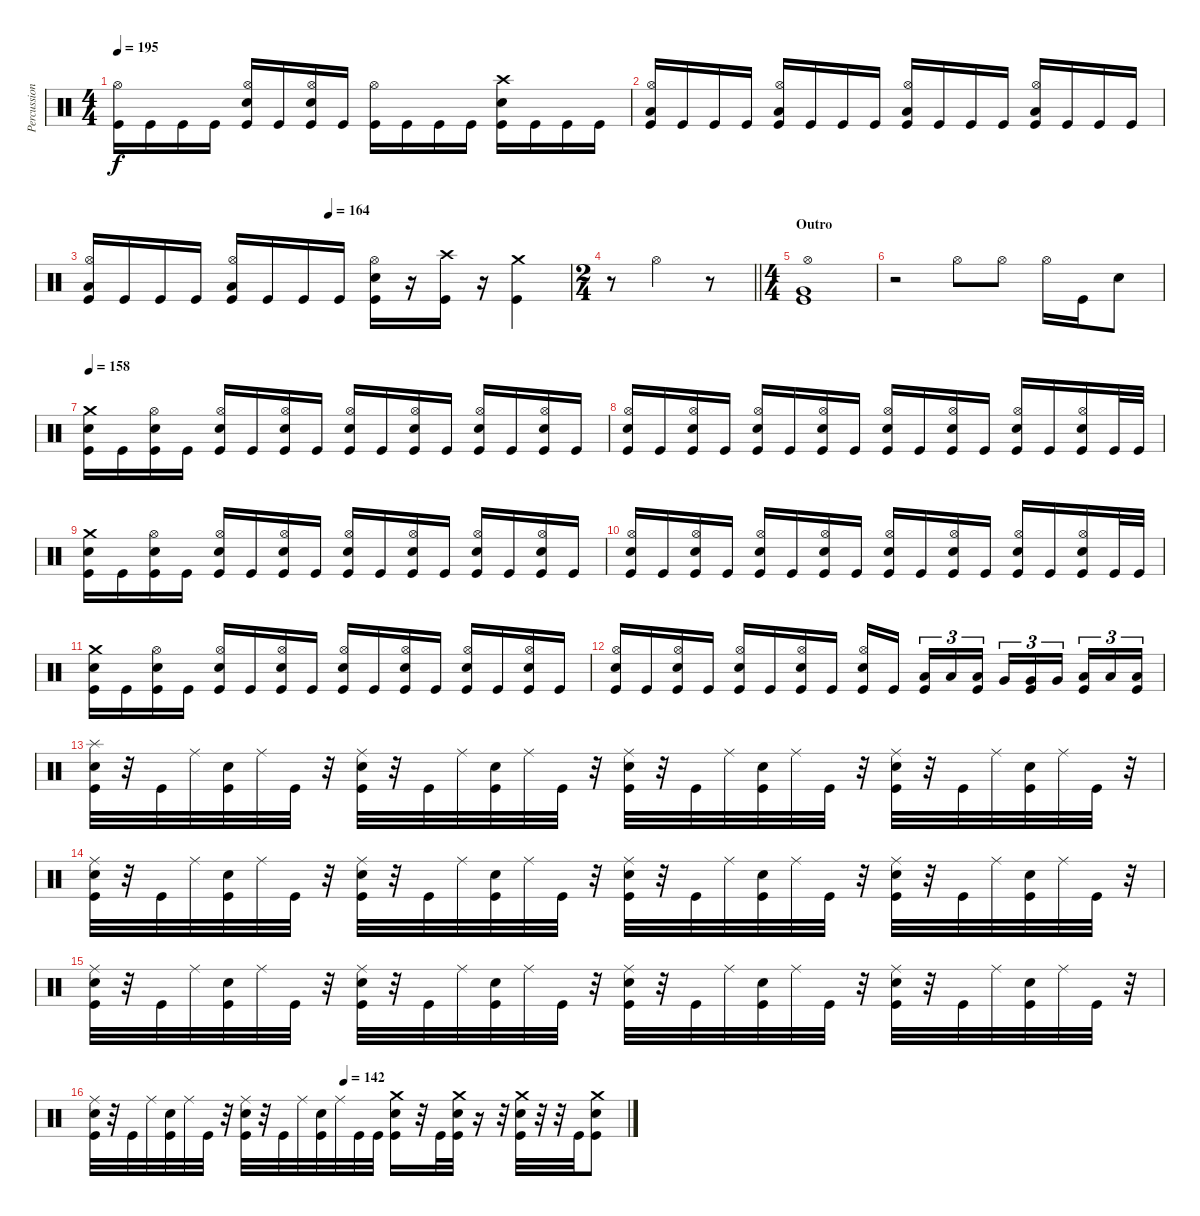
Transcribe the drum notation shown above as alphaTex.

\track ("Percussion" "Percussion") {instrument percussion}
\staff {score}
\articulation defaults
\ts (4 4)
\tempo 195
\clef neutral
\ks c
("Kick (hit)" "Hi-Hat (open)").16{dy f} "Kick (hit)".16 "Kick (hit)".16 "Kick (hit)".16 ("Kick (hit)" "Hi-Hat (open)" "Snare (hit) 2").16 "Kick (hit)".16 ("Kick (hit)" "Hi-Hat (open)" "Snare (hit) 2").16 "Kick (hit)".16 ("Kick (hit)" "Hi-Hat (open)").16 "Kick (hit)".16 "Kick (hit)".16 "Kick (hit)".16 ("Kick (hit)" "Crash high (hit)" "Snare (hit) 2").16 "Kick (hit)".16 "Kick (hit)".16 "Kick (hit)".16 |
("Kick (hit)" "Hi-Hat (open)" "Low Tom (hit)").16 "Kick (hit)".16 "Kick (hit)".16 "Kick (hit)".16 ("Kick (hit)" "Hi-Hat (open)" "Low Tom (hit)").16 "Kick (hit)".16 "Kick (hit)".16 "Kick (hit)".16 ("Kick (hit)" "Hi-Hat (open)" "Low Tom (hit)").16 "Kick (hit)".16 "Kick (hit)".16 "Kick (hit)".16 ("Kick (hit)" "Hi-Hat (open)" "Low Tom (hit)").16 "Kick (hit)".16 "Kick (hit)".16 "Kick (hit)".16 |
\tempo (164 0.5)
("Kick (hit)" "Hi-Hat (open)" "Low Tom (hit)").16 "Kick (hit)".16 "Kick (hit)".16 "Kick (hit)".16 ("Kick (hit)" "Hi-Hat (open)" "Low Tom (hit)").16 "Kick (hit)".16 "Kick (hit)".16 "Kick (hit)".16 ("Kick (hit)" "Hi-Hat (open)" "Snare (hit) 2").16 r.16 ("Kick (hit)" "Crash high (hit)").16 r.16 ("Kick (hit)" "Crash medium (hit)").4 |
\ts (2 4)
\barLineRight lightlight
r.8 "Hi-Hat (open)".4 r.8 |
\ts (4 4)
\section ("" "Outro")
("Kick (hit)" "Hi-Hat (open)" "Very Low Tom (hit)").1 |
r.2 "Hi-Hat (open)".8 "Hi-Hat (open)".8 "Hi-Hat (open)".16 "Kick (hit)".16 "Snare (hit) 2".8 |
\tempo 158
("Kick (hit)" "Snare (hit) 2" "Crash medium (hit)").16 "Kick (hit)".16 ("Kick (hit)" "Snare (hit) 2" "Hi-Hat (open)").16 "Kick (hit)".16 ("Kick (hit)" "Snare (hit) 2" "Hi-Hat (open)").16 "Kick (hit)".16 ("Kick (hit)" "Snare (hit) 2" "Hi-Hat (open)").16 "Kick (hit)".16 ("Kick (hit)" "Snare (hit) 2" "Hi-Hat (open)").16 "Kick (hit)".16 ("Kick (hit)" "Snare (hit) 2" "Hi-Hat (open)").16 "Kick (hit)".16 ("Kick (hit)" "Snare (hit) 2" "Hi-Hat (open)").16 "Kick (hit)".16 ("Kick (hit)" "Snare (hit) 2" "Hi-Hat (open)").16 "Kick (hit)".16 |
("Kick (hit)" "Snare (hit) 2" "Hi-Hat (open)").16 "Kick (hit)".16 ("Kick (hit)" "Snare (hit) 2" "Hi-Hat (open)").16 "Kick (hit)".16 ("Kick (hit)" "Snare (hit) 2" "Hi-Hat (open)").16 "Kick (hit)".16 ("Kick (hit)" "Snare (hit) 2" "Hi-Hat (open)").16 "Kick (hit)".16 ("Kick (hit)" "Snare (hit) 2" "Hi-Hat (open)").16 "Kick (hit)".16 ("Kick (hit)" "Snare (hit) 2" "Hi-Hat (open)").16 "Kick (hit)".16 ("Kick (hit)" "Snare (hit) 2" "Hi-Hat (open)").16 "Kick (hit)".16 ("Kick (hit)" "Snare (hit) 2" "Hi-Hat (open)").16 "Kick (hit)".32 "Kick (hit)".32 |
("Kick (hit)" "Snare (hit) 2" "Crash medium (hit)").16 "Kick (hit)".16 ("Kick (hit)" "Snare (hit) 2" "Hi-Hat (open)").16 "Kick (hit)".16 ("Kick (hit)" "Snare (hit) 2" "Hi-Hat (open)").16 "Kick (hit)".16 ("Kick (hit)" "Snare (hit) 2" "Hi-Hat (open)").16 "Kick (hit)".16 ("Kick (hit)" "Snare (hit) 2" "Hi-Hat (open)").16 "Kick (hit)".16 ("Kick (hit)" "Snare (hit) 2" "Hi-Hat (open)").16 "Kick (hit)".16 ("Kick (hit)" "Snare (hit) 2" "Hi-Hat (open)").16 "Kick (hit)".16 ("Kick (hit)" "Snare (hit) 2" "Hi-Hat (open)").16 "Kick (hit)".16 |
("Kick (hit)" "Snare (hit) 2" "Hi-Hat (open)").16 "Kick (hit)".16 ("Kick (hit)" "Snare (hit) 2" "Hi-Hat (open)").16 "Kick (hit)".16 ("Kick (hit)" "Snare (hit) 2" "Hi-Hat (open)").16 "Kick (hit)".16 ("Kick (hit)" "Snare (hit) 2" "Hi-Hat (open)").16 "Kick (hit)".16 ("Kick (hit)" "Snare (hit) 2" "Hi-Hat (open)").16 "Kick (hit)".16 ("Kick (hit)" "Snare (hit) 2" "Hi-Hat (open)").16 "Kick (hit)".16 ("Kick (hit)" "Snare (hit) 2" "Hi-Hat (open)").16 "Kick (hit)".16 ("Kick (hit)" "Snare (hit) 2" "Hi-Hat (open)").16 "Kick (hit)".32 "Kick (hit)".32 |
("Kick (hit)" "Snare (hit) 2" "Crash medium (hit)").16 "Kick (hit)".16 ("Kick (hit)" "Snare (hit) 2" "Hi-Hat (open)").16 "Kick (hit)".16 ("Kick (hit)" "Snare (hit) 2" "Hi-Hat (open)").16 "Kick (hit)".16 ("Kick (hit)" "Snare (hit) 2" "Hi-Hat (open)").16 "Kick (hit)".16 ("Kick (hit)" "Snare (hit) 2" "Hi-Hat (open)").16 "Kick (hit)".16 ("Kick (hit)" "Snare (hit) 2" "Hi-Hat (open)").16 "Kick (hit)".16 ("Kick (hit)" "Snare (hit) 2" "Hi-Hat (open)").16 "Kick (hit)".16 ("Kick (hit)" "Snare (hit) 2" "Hi-Hat (open)").16 "Kick (hit)".16 |
("Kick (hit)" "Snare (hit) 2" "Hi-Hat (open)").16 "Kick (hit)".16 ("Kick (hit)" "Snare (hit) 2" "Hi-Hat (open)").16 "Kick (hit)".16 ("Kick (hit)" "Snare (hit) 2" "Hi-Hat (open)").16 "Kick (hit)".16 ("Kick (hit)" "Snare (hit) 2" "Hi-Hat (open)").16 "Kick (hit)".16 ("Kick (hit)" "Snare (hit) 2" "Hi-Hat (open)").16 "Kick (hit)".16 ("Kick (hit)" "Low Tom (hit)").16{tu (3 2)} "Low Tom (hit)".16{tu (3 2)} ("Kick (hit)" "Low Tom (hit)").16{tu (3 2)} "Very Low Tom (hit)".16{tu (3 2)} ("Kick (hit)" "Very Low Tom (hit)").16{tu (3 2)} "Very Low Tom (hit)".16{tu (3 2)} ("Kick (hit)" "Low Floor Tom (hit)").16{tu (3 2)} "Low Floor Tom (hit)".16{tu (3 2)} ("Kick (hit)" "Low Floor Tom (hit)").16{tu (3 2)} |
("Kick (hit)" "Snare (hit) 2" "Splash (hit)").32 r.32 "Kick (hit)".32 "Ride (middle)".32 ("Kick (hit)" "Snare (hit) 2").32 "Ride (middle)".32 "Kick (hit)".32 r.32 ("Kick (hit)" "Snare (hit) 2" "Ride (middle)").32 r.32 "Kick (hit)".32 "Ride (middle)".32 ("Kick (hit)" "Snare (hit) 2").32 "Ride (middle)".32 "Kick (hit)".32 r.32 ("Kick (hit)" "Snare (hit) 2" "Ride (middle)").32 r.32 "Kick (hit)".32 "Ride (middle)".32 ("Kick (hit)" "Snare (hit) 2").32 "Ride (middle)".32 "Kick (hit)".32 r.32 ("Kick (hit)" "Snare (hit) 2" "Ride (middle)").32 r.32 "Kick (hit)".32 "Ride (middle)".32 ("Kick (hit)" "Snare (hit) 2").32 "Ride (middle)".32 "Kick (hit)".32 r.32 |
("Kick (hit)" "Snare (hit) 2" "Ride (middle)").32 r.32 "Kick (hit)".32 "Ride (middle)".32 ("Kick (hit)" "Snare (hit) 2").32 "Ride (middle)".32 "Kick (hit)".32 r.32 ("Kick (hit)" "Snare (hit) 2" "Ride (middle)").32 r.32 "Kick (hit)".32 "Ride (middle)".32 ("Kick (hit)" "Snare (hit) 2").32 "Ride (middle)".32 "Kick (hit)".32 r.32 ("Kick (hit)" "Snare (hit) 2" "Ride (middle)").32 r.32 "Kick (hit)".32 "Ride (middle)".32 ("Kick (hit)" "Snare (hit) 2").32 "Ride (middle)".32 "Kick (hit)".32 r.32 ("Kick (hit)" "Snare (hit) 2" "Ride (middle)").32 r.32 "Kick (hit)".32 "Ride (middle)".32 ("Kick (hit)" "Snare (hit) 2").32 "Ride (middle)".32 "Kick (hit)".32 r.32 |
("Kick (hit)" "Snare (hit) 2" "Ride (middle)").32 r.32 "Kick (hit)".32 "Ride (middle)".32 ("Kick (hit)" "Snare (hit) 2").32 "Ride (middle)".32 "Kick (hit)".32 r.32 ("Kick (hit)" "Snare (hit) 2" "Ride (middle)").32 r.32 "Kick (hit)".32 "Ride (middle)".32 ("Kick (hit)" "Snare (hit) 2").32 "Ride (middle)".32 "Kick (hit)".32 r.32 ("Kick (hit)" "Snare (hit) 2" "Ride (middle)").32 r.32 "Kick (hit)".32 "Ride (middle)".32 ("Kick (hit)" "Snare (hit) 2").32 "Ride (middle)".32 "Kick (hit)".32 r.32 ("Kick (hit)" "Snare (hit) 2" "Ride (middle)").32 r.32 "Kick (hit)".32 "Ride (middle)".32 ("Kick (hit)" "Snare (hit) 2").32 "Ride (middle)".32 "Kick (hit)".32 r.32 |
\tempo (142 0.46875)
("Kick (hit)" "Snare (hit) 2" "Ride (middle)").32 r.32 "Kick (hit)".32 "Ride (middle)".32 ("Kick (hit)" "Snare (hit) 2").32 "Ride (middle)".32 "Kick (hit)".32 r.32 ("Kick (hit)" "Snare (hit) 2" "Ride (middle)").32 r.32 "Kick (hit)".32 "Ride (middle)".32 ("Kick (hit)" "Snare (hit) 2").32 "Ride (middle)".32 "Kick (hit)".32 "Kick (hit)".32 ("Kick (hit)" "Snare (hit) 2" "Crash medium (hit)").16 r.32 "Kick (hit)".32 ("Kick (hit)" "Snare (hit) 2" "Crash medium (hit)").32 r.16 r.32 ("Kick (hit)" "Snare (hit) 2" "Crash medium (hit)").32 r.32 r.32 "Kick (hit)".32 ("Kick (hit)" "Snare (hit) 2" "Crash medium (hit)").8
